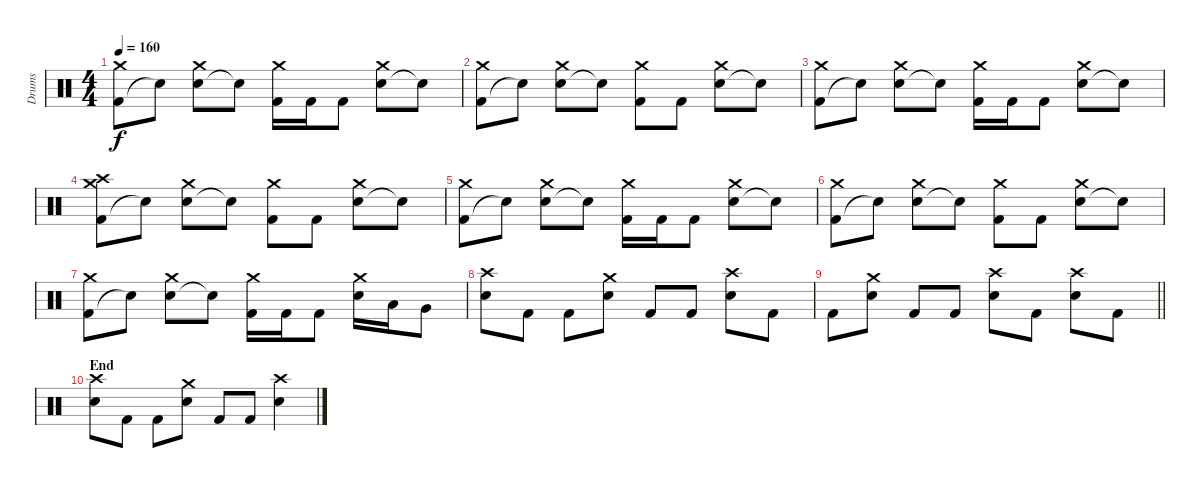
\track ("Drums" "Drums") {instrument percussion}
\staff {score}
\articulation defaults
\ts (4 4)
\tempo 160
\clef neutral
\ks c
("Kick (hit) 2" "Crash medium (hit)").8{dy f} "Snare (hit)"{t}.8 ("Snare (hit) 2" "Crash medium (hit)").8 "Snare (hit)"{t}.8 ("Kick (hit) 2" "Crash medium (hit)").16 "Kick (hit) 2".16 "Kick (hit) 2".8 ("Snare (hit) 2" "Crash medium (hit)").8 "Snare (hit)"{t}.8 |
("Kick (hit) 2" "Crash medium (hit)").8 "Snare (hit)"{t}.8 ("Snare (hit) 2" "Crash medium (hit)").8 "Snare (hit)"{t}.8 ("Kick (hit) 2" "Crash medium (hit)").8 "Kick (hit) 2".8 ("Snare (hit) 2" "Crash medium (hit)").8 "Snare (hit)"{t}.8 |
("Kick (hit) 2" "Crash medium (hit)").8 "Snare (hit)"{t}.8 ("Snare (hit) 2" "Crash medium (hit)").8 "Snare (hit)"{t}.8 ("Kick (hit) 2" "Crash medium (hit)").16 "Kick (hit) 2".16 "Kick (hit) 2".8 ("Snare (hit) 2" "Crash medium (hit)").8 "Snare (hit)"{t}.8 |
("Kick (hit) 2" "Crash medium (hit)" "Crash high (hit)").8 "Snare (hit)"{t}.8 ("Snare (hit) 2" "Crash medium (hit)").8 "Snare (hit)"{t}.8 ("Kick (hit) 2" "Crash medium (hit)").8 "Kick (hit) 2".8 ("Snare (hit) 2" "Crash medium (hit)").8 "Snare (hit)"{t}.8 |
("Kick (hit) 2" "Crash medium (hit)").8 "Snare (hit)"{t}.8 ("Snare (hit) 2" "Crash medium (hit)").8 "Snare (hit)"{t}.8 ("Kick (hit) 2" "Crash medium (hit)").16 "Kick (hit) 2".16 "Kick (hit) 2".8 ("Snare (hit) 2" "Crash medium (hit)").8 "Snare (hit)"{t}.8 |
("Kick (hit) 2" "Crash medium (hit)").8 "Snare (hit)"{t}.8 ("Snare (hit) 2" "Crash medium (hit)").8 "Snare (hit)"{t}.8 ("Kick (hit) 2" "Crash medium (hit)").8 "Kick (hit) 2".8 ("Snare (hit) 2" "Crash medium (hit)").8 "Snare (hit)"{t}.8 |
("Kick (hit) 2" "Crash medium (hit)").8 "Snare (hit)"{t}.8 ("Snare (hit) 2" "Crash medium (hit)").8 "Snare (hit)"{t}.8 ("Kick (hit) 2" "Crash medium (hit)").16 "Kick (hit) 2".16 "Kick (hit) 2".8 ("Snare (hit) 2" "Crash medium (hit)").16 "Low Tom (hit)".16 "Very Low Tom (hit)".8 |
("Snare (hit) 2" "Crash high (hit)").8 "Kick (hit) 2".8 "Kick (hit) 2".8 ("Snare (hit) 2" "Crash medium (hit)").8 "Kick (hit) 2".8 "Kick (hit) 2".8 ("Snare (hit) 2" "Crash high (hit)").8 "Kick (hit) 2".8 |
\barLineRight lightlight "Kick (hit) 2".8
("Snare (hit) 2" "Crash medium (hit)").8 "Kick (hit) 2".8 "Kick (hit) 2".8 ("Snare (hit) 2" "Crash high (hit)").8 "Kick (hit) 2".8 ("Snare (hit) 2" "Crash high (hit)").8 "Kick (hit) 2".8 |
\section ("" "End")
("Snare (hit) 2" "Crash high (hit)").8 "Kick (hit) 2".8 "Kick (hit) 2".8 ("Snare (hit) 2" "Crash medium (hit)").8 "Kick (hit) 2".8 "Kick (hit) 2".8 ("Snare (hit) 2" "Crash high (hit)").4
